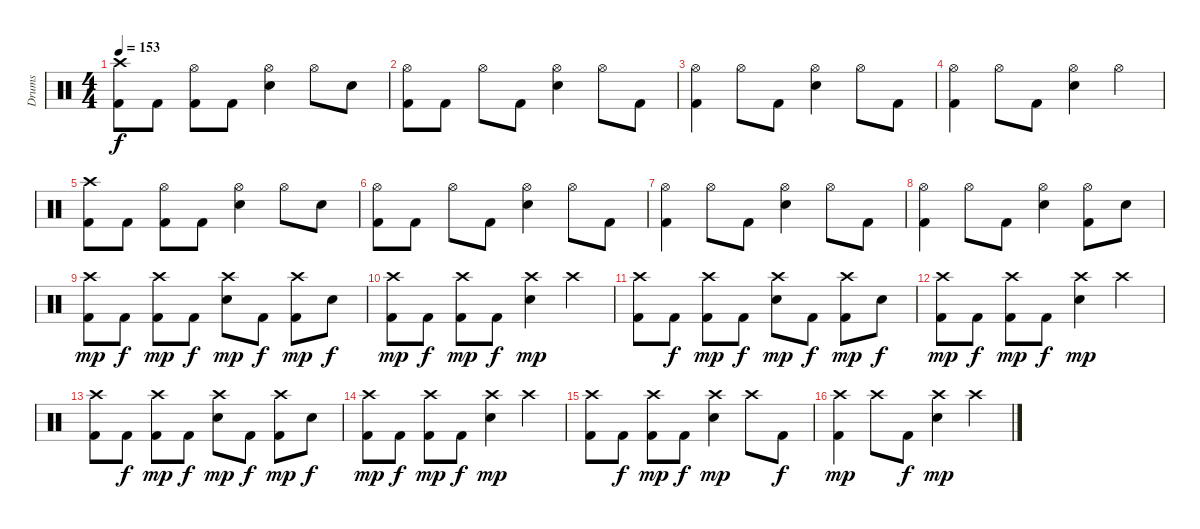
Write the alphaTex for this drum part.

\track ("Drums" "Drums") {instrument percussion}
\staff {score}
\articulation defaults
\ts (4 4)
\tempo 153
\clef neutral
\ks c
("Crash high (hit)" "Kick (hit) 2").8{dy f} "Kick (hit) 2".8 ("Hi-Hat (open)" "Kick (hit) 2").8 "Kick (hit) 2".8 ("Hi-Hat (open)" "Electric Snare (hit)").4 "Hi-Hat (open)".8 "Electric Snare (hit)".8 |
("Hi-Hat (open)" "Kick (hit) 2").8 "Kick (hit) 2".8 "Hi-Hat (open)".8 "Kick (hit) 2".8 ("Hi-Hat (open)" "Electric Snare (hit)").4 "Hi-Hat (open)".8 "Kick (hit) 2".8 |
("Hi-Hat (open)" "Kick (hit) 2").4 "Hi-Hat (open)".8 "Kick (hit) 2".8 ("Hi-Hat (open)" "Electric Snare (hit)").4 "Hi-Hat (open)".8 "Kick (hit) 2".8 |
("Hi-Hat (open)" "Kick (hit) 2").4 "Hi-Hat (open)".8 "Kick (hit) 2".8 ("Hi-Hat (open)" "Electric Snare (hit)").4 "Hi-Hat (open)".4 |
("Crash high (hit)" "Kick (hit) 2").8 "Kick (hit) 2".8 ("Hi-Hat (open)" "Kick (hit) 2").8 "Kick (hit) 2".8 ("Hi-Hat (open)" "Electric Snare (hit)").4 "Hi-Hat (open)".8 "Electric Snare (hit)".8 |
("Hi-Hat (open)" "Kick (hit) 2").8 "Kick (hit) 2".8 "Hi-Hat (open)".8 "Kick (hit) 2".8 ("Hi-Hat (open)" "Electric Snare (hit)").4 "Hi-Hat (open)".8 "Kick (hit) 2".8 |
("Hi-Hat (open)" "Kick (hit) 2").4 "Hi-Hat (open)".8 "Kick (hit) 2".8 ("Hi-Hat (open)" "Electric Snare (hit)").4 "Hi-Hat (open)".8 "Kick (hit) 2".8 |
("Hi-Hat (open)" "Kick (hit) 2").4 "Hi-Hat (open)".8 "Kick (hit) 2".8 ("Hi-Hat (open)" "Electric Snare (hit)").4 ("Hi-Hat (open)" "Kick (hit) 2").8 "Electric Snare (hit)".8 |
("Crash high (hit)" "Kick (hit) 2").8{dy mp} "Kick (hit) 2".8{dy f} ("Crash high (hit)" "Kick (hit) 2").8{dy mp} "Kick (hit) 2".8{dy f} ("Crash high (hit)" "Electric Snare (hit)").8{dy mp} "Kick (hit) 2".8{dy f} ("Crash high (hit)" "Kick (hit) 2").8{dy mp} "Electric Snare (hit)".8{dy f} |
("Crash high (hit)" "Kick (hit) 2").8{dy mp} "Kick (hit) 2".8{dy f} ("Crash high (hit)" "Kick (hit) 2").8{dy mp} "Kick (hit) 2".8{dy f} ("Crash high (hit)" "Electric Snare (hit)").4{dy mp} "Crash high (hit)".4 |
("Crash high (hit)" "Kick (hit) 2").8 "Kick (hit) 2".8{dy f} ("Crash high (hit)" "Kick (hit) 2").8{dy mp} "Kick (hit) 2".8{dy f} ("Crash high (hit)" "Electric Snare (hit)").8{dy mp} "Kick (hit) 2".8{dy f} ("Crash high (hit)" "Kick (hit) 2").8{dy mp} "Electric Snare (hit)".8{dy f} |
("Crash high (hit)" "Kick (hit) 2").8{dy mp} "Kick (hit) 2".8{dy f} ("Crash high (hit)" "Kick (hit) 2").8{dy mp} "Kick (hit) 2".8{dy f} ("Crash high (hit)" "Electric Snare (hit)").4{dy mp} "Crash high (hit)".4 |
("Crash high (hit)" "Kick (hit) 2").8 "Kick (hit) 2".8{dy f} ("Crash high (hit)" "Kick (hit) 2").8{dy mp} "Kick (hit) 2".8{dy f} ("Crash high (hit)" "Electric Snare (hit)").8{dy mp} "Kick (hit) 2".8{dy f} ("Crash high (hit)" "Kick (hit) 2").8{dy mp} "Electric Snare (hit)".8{dy f} |
("Crash high (hit)" "Kick (hit) 2").8{dy mp} "Kick (hit) 2".8{dy f} ("Crash high (hit)" "Kick (hit) 2").8{dy mp} "Kick (hit) 2".8{dy f} ("Crash high (hit)" "Electric Snare (hit)").4{dy mp} "Crash high (hit)".4 |
("Crash high (hit)" "Kick (hit) 2").8 "Kick (hit) 2".8{dy f} ("Crash high (hit)" "Kick (hit) 2").8{dy mp} "Kick (hit) 2".8{dy f} ("Crash high (hit)" "Electric Snare (hit)").4{dy mp} "Crash high (hit)".8 "Kick (hit) 2".8{dy f} |
("Crash high (hit)" "Kick (hit) 2").4{dy mp} "Crash high (hit)".8 "Kick (hit) 2".8{dy f} ("Crash high (hit)" "Electric Snare (hit)").4{dy mp} "Crash high (hit)".4
